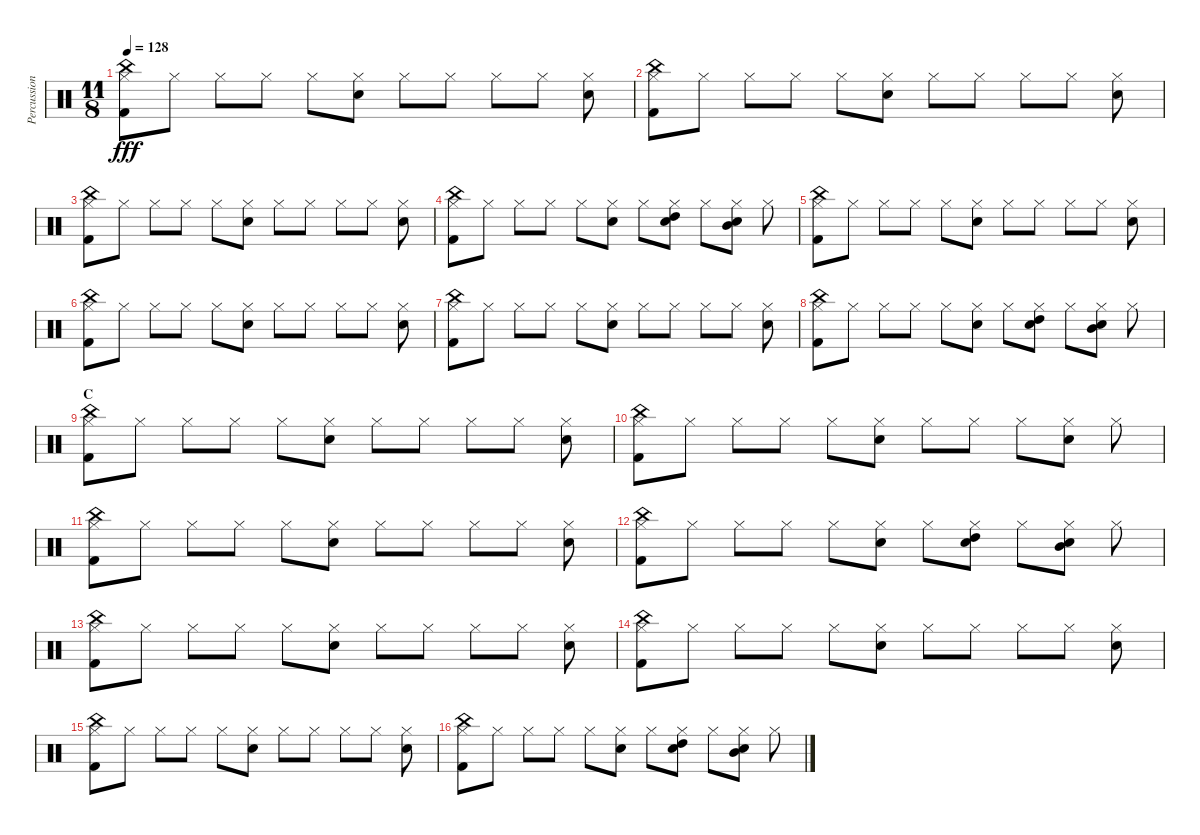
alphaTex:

\track ("Percussions" "Percussion") {instrument percussion}
\staff {score}
\articulation defaults
\ts (11 8)
\tempo 128
\clef neutral
\ks c
("Hi-Hat (closed)" "China (hit)" "Kick (hit) 2").8{dy fff} "Hi-Hat (closed)".8 "Hi-Hat (closed)".8 "Hi-Hat (closed)".8 "Hi-Hat (closed)".8 ("Hi-Hat (closed)" "Electric Snare (hit)").8 "Hi-Hat (closed)".8 "Hi-Hat (closed)".8 "Hi-Hat (closed)".8 "Hi-Hat (closed)".8 ("Hi-Hat (closed)" "Electric Snare (hit)").8 |
("Hi-Hat (closed)" "China (hit)" "Kick (hit) 2").8 "Hi-Hat (closed)".8 "Hi-Hat (closed)".8 "Hi-Hat (closed)".8 "Hi-Hat (closed)".8 ("Hi-Hat (closed)" "Electric Snare (hit)").8 "Hi-Hat (closed)".8 "Hi-Hat (closed)".8 "Hi-Hat (closed)".8 "Hi-Hat (closed)".8 ("Hi-Hat (closed)" "Electric Snare (hit)").8 |
("Hi-Hat (closed)" "China (hit)" "Kick (hit) 2").8 "Hi-Hat (closed)".8 "Hi-Hat (closed)".8 "Hi-Hat (closed)".8 "Hi-Hat (closed)".8 ("Hi-Hat (closed)" "Electric Snare (hit)").8 "Hi-Hat (closed)".8 "Hi-Hat (closed)".8 "Hi-Hat (closed)".8 "Hi-Hat (closed)".8 ("Hi-Hat (closed)" "Electric Snare (hit)").8 |
("Hi-Hat (closed)" "China (hit)" "Kick (hit) 2").8 "Hi-Hat (closed)".8 "Hi-Hat (closed)".8 "Hi-Hat (closed)".8 "Hi-Hat (closed)".8 ("Hi-Hat (closed)" "Electric Snare (hit)").8 "Hi-Hat (closed)".8 ("Hi-Hat (closed)" "High Tom (hit)" "Electric Snare (hit)").8 "Hi-Hat (closed)".8 ("Hi-Hat (closed)" "Mid Tom (hit)" "Electric Snare (hit)").8 "Hi-Hat (closed)".8 |
("Hi-Hat (closed)" "China (hit)" "Kick (hit) 2").8 "Hi-Hat (closed)".8 "Hi-Hat (closed)".8 "Hi-Hat (closed)".8 "Hi-Hat (closed)".8 ("Hi-Hat (closed)" "Electric Snare (hit)").8 "Hi-Hat (closed)".8 "Hi-Hat (closed)".8 "Hi-Hat (closed)".8 "Hi-Hat (closed)".8 ("Hi-Hat (closed)" "Electric Snare (hit)").8 |
("Hi-Hat (closed)" "China (hit)" "Kick (hit) 2").8 "Hi-Hat (closed)".8 "Hi-Hat (closed)".8 "Hi-Hat (closed)".8 "Hi-Hat (closed)".8 ("Hi-Hat (closed)" "Electric Snare (hit)").8 "Hi-Hat (closed)".8 "Hi-Hat (closed)".8 "Hi-Hat (closed)".8 "Hi-Hat (closed)".8 ("Hi-Hat (closed)" "Electric Snare (hit)").8 |
("Hi-Hat (closed)" "China (hit)" "Kick (hit) 2").8 "Hi-Hat (closed)".8 "Hi-Hat (closed)".8 "Hi-Hat (closed)".8 "Hi-Hat (closed)".8 ("Hi-Hat (closed)" "Electric Snare (hit)").8 "Hi-Hat (closed)".8 "Hi-Hat (closed)".8 "Hi-Hat (closed)".8 "Hi-Hat (closed)".8 ("Hi-Hat (closed)" "Electric Snare (hit)").8 |
("Hi-Hat (closed)" "China (hit)" "Kick (hit) 2").8 "Hi-Hat (closed)".8 "Hi-Hat (closed)".8 "Hi-Hat (closed)".8 "Hi-Hat (closed)".8 ("Hi-Hat (closed)" "Electric Snare (hit)").8 "Hi-Hat (closed)".8 ("Hi-Hat (closed)" "High Tom (hit)" "Electric Snare (hit)").8 "Hi-Hat (closed)".8 ("Hi-Hat (closed)" "Mid Tom (hit)" "Electric Snare (hit)").8 "Hi-Hat (closed)".8 |
\section ("" "C")
("Hi-Hat (closed)" "China (hit)" "Kick (hit) 2").8 "Hi-Hat (closed)".8 "Hi-Hat (closed)".8 "Hi-Hat (closed)".8 "Hi-Hat (closed)".8 ("Hi-Hat (closed)" "Electric Snare (hit)").8 "Hi-Hat (closed)".8 "Hi-Hat (closed)".8 "Hi-Hat (closed)".8 "Hi-Hat (closed)".8 ("Hi-Hat (closed)" "Electric Snare (hit)").8 |
("Hi-Hat (closed)" "China (hit)" "Kick (hit) 2").8 "Hi-Hat (closed)".8 "Hi-Hat (closed)".8 "Hi-Hat (closed)".8 "Hi-Hat (closed)".8 ("Hi-Hat (closed)" "Electric Snare (hit)").8 "Hi-Hat (closed)".8 "Hi-Hat (closed)".8 "Hi-Hat (closed)".8 ("Hi-Hat (closed)" "Electric Snare (hit)").8 "Hi-Hat (closed)".8 |
("Hi-Hat (closed)" "China (hit)" "Kick (hit) 2").8 "Hi-Hat (closed)".8 "Hi-Hat (closed)".8 "Hi-Hat (closed)".8 "Hi-Hat (closed)".8 ("Hi-Hat (closed)" "Electric Snare (hit)").8 "Hi-Hat (closed)".8 "Hi-Hat (closed)".8 "Hi-Hat (closed)".8 "Hi-Hat (closed)".8 ("Hi-Hat (closed)" "Electric Snare (hit)").8 |
("Hi-Hat (closed)" "China (hit)" "Kick (hit) 2").8 "Hi-Hat (closed)".8 "Hi-Hat (closed)".8 "Hi-Hat (closed)".8 "Hi-Hat (closed)".8 ("Hi-Hat (closed)" "Electric Snare (hit)").8 "Hi-Hat (closed)".8 ("Hi-Hat (closed)" "High Tom (hit)" "Electric Snare (hit)").8 "Hi-Hat (closed)".8 ("Hi-Hat (closed)" "Mid Tom (hit)" "Electric Snare (hit)").8 "Hi-Hat (closed)".8 |
("Hi-Hat (closed)" "China (hit)" "Kick (hit) 2").8 "Hi-Hat (closed)".8 "Hi-Hat (closed)".8 "Hi-Hat (closed)".8 "Hi-Hat (closed)".8 ("Hi-Hat (closed)" "Electric Snare (hit)").8 "Hi-Hat (closed)".8 "Hi-Hat (closed)".8 "Hi-Hat (closed)".8 "Hi-Hat (closed)".8 ("Hi-Hat (closed)" "Electric Snare (hit)").8 |
("Hi-Hat (closed)" "China (hit)" "Kick (hit) 2").8 "Hi-Hat (closed)".8 "Hi-Hat (closed)".8 "Hi-Hat (closed)".8 "Hi-Hat (closed)".8 ("Hi-Hat (closed)" "Electric Snare (hit)").8 "Hi-Hat (closed)".8 "Hi-Hat (closed)".8 "Hi-Hat (closed)".8 "Hi-Hat (closed)".8 ("Hi-Hat (closed)" "Electric Snare (hit)").8 |
("Hi-Hat (closed)" "China (hit)" "Kick (hit) 2").8 "Hi-Hat (closed)".8 "Hi-Hat (closed)".8 "Hi-Hat (closed)".8 "Hi-Hat (closed)".8 ("Hi-Hat (closed)" "Electric Snare (hit)").8 "Hi-Hat (closed)".8 "Hi-Hat (closed)".8 "Hi-Hat (closed)".8 "Hi-Hat (closed)".8 ("Hi-Hat (closed)" "Electric Snare (hit)").8 |
("Hi-Hat (closed)" "China (hit)" "Kick (hit) 2").8 "Hi-Hat (closed)".8 "Hi-Hat (closed)".8 "Hi-Hat (closed)".8 "Hi-Hat (closed)".8 ("Hi-Hat (closed)" "Electric Snare (hit)").8 "Hi-Hat (closed)".8 ("Hi-Hat (closed)" "High Tom (hit)" "Electric Snare (hit)").8 "Hi-Hat (closed)".8 ("Hi-Hat (closed)" "Mid Tom (hit)" "Electric Snare (hit)").8 "Hi-Hat (closed)".8
